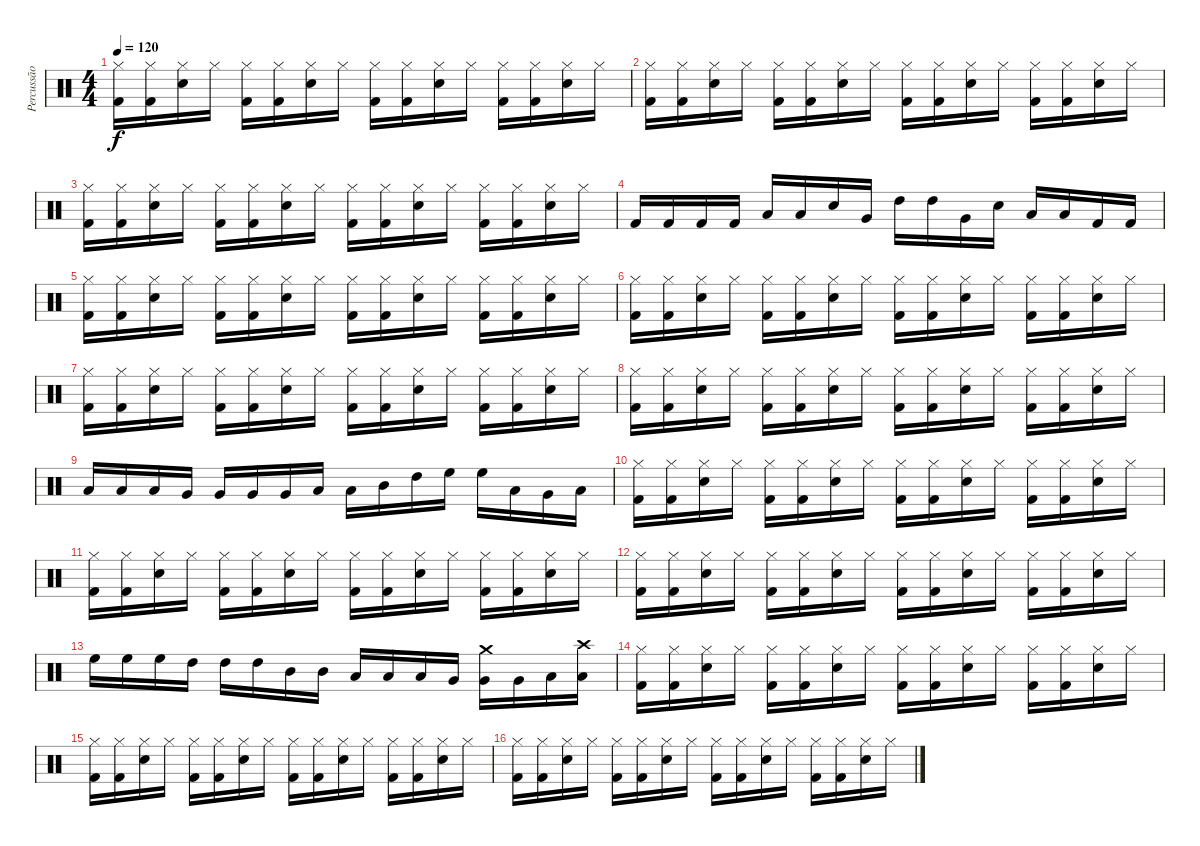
\track ("Percussão" "Percussão") {instrument percussion}
\staff {score}
\articulation defaults
\ts (4 4)
\tempo 120
\clef neutral
\ks c
("Hi-Hat (closed)" "Kick (hit) 2").16{dy f} ("Hi-Hat (closed)" "Kick (hit) 2").16 ("Hi-Hat (closed)" "Electric Snare (hit)").16 "Hi-Hat (closed)".16 ("Hi-Hat (closed)" "Kick (hit) 2").16 ("Hi-Hat (closed)" "Kick (hit) 2").16 ("Hi-Hat (closed)" "Electric Snare (hit)").16 "Hi-Hat (closed)".16 ("Hi-Hat (closed)" "Kick (hit) 2").16 ("Hi-Hat (closed)" "Kick (hit) 2").16 ("Hi-Hat (closed)" "Electric Snare (hit)").16 "Hi-Hat (closed)".16 ("Hi-Hat (closed)" "Kick (hit) 2").16 ("Hi-Hat (closed)" "Kick (hit) 2").16 ("Hi-Hat (closed)" "Electric Snare (hit)").16 "Hi-Hat (closed)".16 |
("Hi-Hat (closed)" "Kick (hit) 2").16 ("Hi-Hat (closed)" "Kick (hit) 2").16 ("Hi-Hat (closed)" "Electric Snare (hit)").16 "Hi-Hat (closed)".16 ("Hi-Hat (closed)" "Kick (hit) 2").16 ("Hi-Hat (closed)" "Kick (hit) 2").16 ("Hi-Hat (closed)" "Electric Snare (hit)").16 "Hi-Hat (closed)".16 ("Hi-Hat (closed)" "Kick (hit) 2").16 ("Hi-Hat (closed)" "Kick (hit) 2").16 ("Hi-Hat (closed)" "Electric Snare (hit)").16 "Hi-Hat (closed)".16 ("Hi-Hat (closed)" "Kick (hit) 2").16 ("Hi-Hat (closed)" "Kick (hit) 2").16 ("Hi-Hat (closed)" "Electric Snare (hit)").16 "Hi-Hat (closed)".16 |
("Hi-Hat (closed)" "Kick (hit) 2").16 ("Hi-Hat (closed)" "Kick (hit) 2").16 ("Hi-Hat (closed)" "Electric Snare (hit)").16 "Hi-Hat (closed)".16 ("Hi-Hat (closed)" "Kick (hit) 2").16 ("Hi-Hat (closed)" "Kick (hit) 2").16 ("Hi-Hat (closed)" "Electric Snare (hit)").16 "Hi-Hat (closed)".16 ("Hi-Hat (closed)" "Kick (hit) 2").16 ("Hi-Hat (closed)" "Kick (hit) 2").16 ("Hi-Hat (closed)" "Electric Snare (hit)").16 "Hi-Hat (closed)".16 ("Hi-Hat (closed)" "Kick (hit) 2").16 ("Hi-Hat (closed)" "Kick (hit) 2").16 ("Hi-Hat (closed)" "Electric Snare (hit)").16 "Hi-Hat (closed)".16 |
"Kick (hit) 2".16 "Kick (hit) 2".16 "Kick (hit) 2".16 "Kick (hit) 2".16 "Low Tom (hit)".16 "Low Tom (hit)".16 "Electric Snare (hit)".16 "Very Low Tom (hit)".16 "High Tom (hit)".16 "High Tom (hit)".16 "Very Low Tom (hit)".16 "Electric Snare (hit)".16 "Low Floor Tom (hit)".16 "Low Floor Tom (hit)".16 "Kick (hit) 2".16 "Kick (hit) 2".16 |
("Hi-Hat (closed)" "Kick (hit) 2").16 ("Hi-Hat (closed)" "Kick (hit) 2").16 ("Hi-Hat (closed)" "Electric Snare (hit)").16 "Hi-Hat (closed)".16 ("Hi-Hat (closed)" "Kick (hit) 2").16 ("Hi-Hat (closed)" "Kick (hit) 2").16 ("Hi-Hat (closed)" "Electric Snare (hit)").16 "Hi-Hat (closed)".16 ("Hi-Hat (closed)" "Kick (hit) 2").16 ("Hi-Hat (closed)" "Kick (hit) 2").16 ("Hi-Hat (closed)" "Electric Snare (hit)").16 "Hi-Hat (closed)".16 ("Hi-Hat (closed)" "Kick (hit) 2").16 ("Hi-Hat (closed)" "Kick (hit) 2").16 ("Hi-Hat (closed)" "Electric Snare (hit)").16 "Hi-Hat (closed)".16 |
("Hi-Hat (closed)" "Kick (hit) 2").16 ("Hi-Hat (closed)" "Kick (hit) 2").16 ("Hi-Hat (closed)" "Electric Snare (hit)").16 "Hi-Hat (closed)".16 ("Hi-Hat (closed)" "Kick (hit) 2").16 ("Hi-Hat (closed)" "Kick (hit) 2").16 ("Hi-Hat (closed)" "Electric Snare (hit)").16 "Hi-Hat (closed)".16 ("Hi-Hat (closed)" "Kick (hit) 2").16 ("Hi-Hat (closed)" "Kick (hit) 2").16 ("Hi-Hat (closed)" "Electric Snare (hit)").16 "Hi-Hat (closed)".16 ("Hi-Hat (closed)" "Kick (hit) 2").16 ("Hi-Hat (closed)" "Kick (hit) 2").16 ("Hi-Hat (closed)" "Electric Snare (hit)").16 "Hi-Hat (closed)".16 |
("Hi-Hat (closed)" "Kick (hit) 2").16 ("Hi-Hat (closed)" "Kick (hit) 2").16 ("Hi-Hat (closed)" "Electric Snare (hit)").16 "Hi-Hat (closed)".16 ("Hi-Hat (closed)" "Kick (hit) 2").16 ("Hi-Hat (closed)" "Kick (hit) 2").16 ("Hi-Hat (closed)" "Electric Snare (hit)").16 "Hi-Hat (closed)".16 ("Hi-Hat (closed)" "Kick (hit) 2").16 ("Hi-Hat (closed)" "Kick (hit) 2").16 ("Hi-Hat (closed)" "Electric Snare (hit)").16 "Hi-Hat (closed)".16 ("Hi-Hat (closed)" "Kick (hit) 2").16 ("Hi-Hat (closed)" "Kick (hit) 2").16 ("Hi-Hat (closed)" "Electric Snare (hit)").16 "Hi-Hat (closed)".16 |
("Hi-Hat (closed)" "Kick (hit) 2").16 ("Hi-Hat (closed)" "Kick (hit) 2").16 ("Hi-Hat (closed)" "Electric Snare (hit)").16 "Hi-Hat (closed)".16 ("Hi-Hat (closed)" "Kick (hit) 2").16 ("Hi-Hat (closed)" "Kick (hit) 2").16 ("Hi-Hat (closed)" "Electric Snare (hit)").16 "Hi-Hat (closed)".16 ("Hi-Hat (closed)" "Kick (hit) 2").16 ("Hi-Hat (closed)" "Kick (hit) 2").16 ("Hi-Hat (closed)" "Electric Snare (hit)").16 "Hi-Hat (closed)".16 ("Hi-Hat (closed)" "Kick (hit) 2").16 ("Hi-Hat (closed)" "Kick (hit) 2").16 ("Hi-Hat (closed)" "Electric Snare (hit)").16 "Hi-Hat (closed)".16 |
"Low Floor Tom (hit)".16 "Low Floor Tom (hit)".16 "Low Floor Tom (hit)".16 "Very Low Tom (hit)".16 "Very Low Tom (hit)".16 "Very Low Tom (hit)".16 "Very Low Tom (hit)".16 "Low Tom (hit)".16 "Low Tom (hit)".16 "Mid Tom (hit)".16 "High Tom (hit)".16 "High Floor Tom (hit)".16 "High Floor Tom (hit)".16 "Low Floor Tom (hit)".16 "Very Low Tom (hit)".16 "Low Floor Tom (hit)".16 |
("Hi-Hat (closed)" "Kick (hit) 2").16 ("Hi-Hat (closed)" "Kick (hit) 2").16 ("Hi-Hat (closed)" "Electric Snare (hit)").16 "Hi-Hat (closed)".16 ("Hi-Hat (closed)" "Kick (hit) 2").16 ("Hi-Hat (closed)" "Kick (hit) 2").16 ("Hi-Hat (closed)" "Electric Snare (hit)").16 "Hi-Hat (closed)".16 ("Hi-Hat (closed)" "Kick (hit) 2").16 ("Hi-Hat (closed)" "Kick (hit) 2").16 ("Hi-Hat (closed)" "Electric Snare (hit)").16 "Hi-Hat (closed)".16 ("Hi-Hat (closed)" "Kick (hit) 2").16 ("Hi-Hat (closed)" "Kick (hit) 2").16 ("Hi-Hat (closed)" "Electric Snare (hit)").16 "Hi-Hat (closed)".16 |
("Hi-Hat (closed)" "Kick (hit) 2").16 ("Hi-Hat (closed)" "Kick (hit) 2").16 ("Hi-Hat (closed)" "Electric Snare (hit)").16 "Hi-Hat (closed)".16 ("Hi-Hat (closed)" "Kick (hit) 2").16 ("Hi-Hat (closed)" "Kick (hit) 2").16 ("Hi-Hat (closed)" "Electric Snare (hit)").16 "Hi-Hat (closed)".16 ("Hi-Hat (closed)" "Kick (hit) 2").16 ("Hi-Hat (closed)" "Kick (hit) 2").16 ("Hi-Hat (closed)" "Electric Snare (hit)").16 "Hi-Hat (closed)".16 ("Hi-Hat (closed)" "Kick (hit) 2").16 ("Hi-Hat (closed)" "Kick (hit) 2").16 ("Hi-Hat (closed)" "Electric Snare (hit)").16 "Hi-Hat (closed)".16 |
("Hi-Hat (closed)" "Kick (hit) 2").16 ("Hi-Hat (closed)" "Kick (hit) 2").16 ("Hi-Hat (closed)" "Electric Snare (hit)").16 "Hi-Hat (closed)".16 ("Hi-Hat (closed)" "Kick (hit) 2").16 ("Hi-Hat (closed)" "Kick (hit) 2").16 ("Hi-Hat (closed)" "Electric Snare (hit)").16 "Hi-Hat (closed)".16 ("Hi-Hat (closed)" "Kick (hit) 2").16 ("Hi-Hat (closed)" "Kick (hit) 2").16 ("Hi-Hat (closed)" "Electric Snare (hit)").16 "Hi-Hat (closed)".16 ("Hi-Hat (closed)" "Kick (hit) 2").16 ("Hi-Hat (closed)" "Kick (hit) 2").16 ("Hi-Hat (closed)" "Electric Snare (hit)").16 "Hi-Hat (closed)".16 |
"High Floor Tom (hit)".16 "High Floor Tom (hit)".16 "High Floor Tom (hit)".16 "High Tom (hit)".16 "High Tom (hit)".16 "High Tom (hit)".16 "Mid Tom (hit)".16 "Mid Tom (hit)".16 "Low Tom (hit)".16 "Low Tom (hit)".16 "Low Tom (hit)".16 "Very Low Tom (hit)".16 ("Crash medium (hit)" "Very Low Tom (hit)").16 "Very Low Tom (hit)".16 "Low Floor Tom (hit)".16 ("Crash high (hit)" "Low Floor Tom (hit)").16 |
("Hi-Hat (closed)" "Kick (hit) 2").16 ("Hi-Hat (closed)" "Kick (hit) 2").16 ("Hi-Hat (closed)" "Electric Snare (hit)").16 "Hi-Hat (closed)".16 ("Hi-Hat (closed)" "Kick (hit) 2").16 ("Hi-Hat (closed)" "Kick (hit) 2").16 ("Hi-Hat (closed)" "Electric Snare (hit)").16 "Hi-Hat (closed)".16 ("Hi-Hat (closed)" "Kick (hit) 2").16 ("Hi-Hat (closed)" "Kick (hit) 2").16 ("Hi-Hat (closed)" "Electric Snare (hit)").16 "Hi-Hat (closed)".16 ("Hi-Hat (closed)" "Kick (hit) 2").16 ("Hi-Hat (closed)" "Kick (hit) 2").16 ("Hi-Hat (closed)" "Electric Snare (hit)").16 "Hi-Hat (closed)".16 |
("Hi-Hat (closed)" "Kick (hit) 2").16 ("Hi-Hat (closed)" "Kick (hit) 2").16 ("Hi-Hat (closed)" "Electric Snare (hit)").16 "Hi-Hat (closed)".16 ("Hi-Hat (closed)" "Kick (hit) 2").16 ("Hi-Hat (closed)" "Kick (hit) 2").16 ("Hi-Hat (closed)" "Electric Snare (hit)").16 "Hi-Hat (closed)".16 ("Hi-Hat (closed)" "Kick (hit) 2").16 ("Hi-Hat (closed)" "Kick (hit) 2").16 ("Hi-Hat (closed)" "Electric Snare (hit)").16 "Hi-Hat (closed)".16 ("Hi-Hat (closed)" "Kick (hit) 2").16 ("Hi-Hat (closed)" "Kick (hit) 2").16 ("Hi-Hat (closed)" "Electric Snare (hit)").16 "Hi-Hat (closed)".16 |
("Hi-Hat (closed)" "Kick (hit) 2").16 ("Hi-Hat (closed)" "Kick (hit) 2").16 ("Hi-Hat (closed)" "Electric Snare (hit)").16 "Hi-Hat (closed)".16 ("Hi-Hat (closed)" "Kick (hit) 2").16 ("Hi-Hat (closed)" "Kick (hit) 2").16 ("Hi-Hat (closed)" "Electric Snare (hit)").16 "Hi-Hat (closed)".16 ("Hi-Hat (closed)" "Kick (hit) 2").16 ("Hi-Hat (closed)" "Kick (hit) 2").16 ("Hi-Hat (closed)" "Electric Snare (hit)").16 "Hi-Hat (closed)".16 ("Hi-Hat (closed)" "Kick (hit) 2").16 ("Hi-Hat (closed)" "Kick (hit) 2").16 ("Hi-Hat (closed)" "Electric Snare (hit)").16 "Hi-Hat (closed)".16
